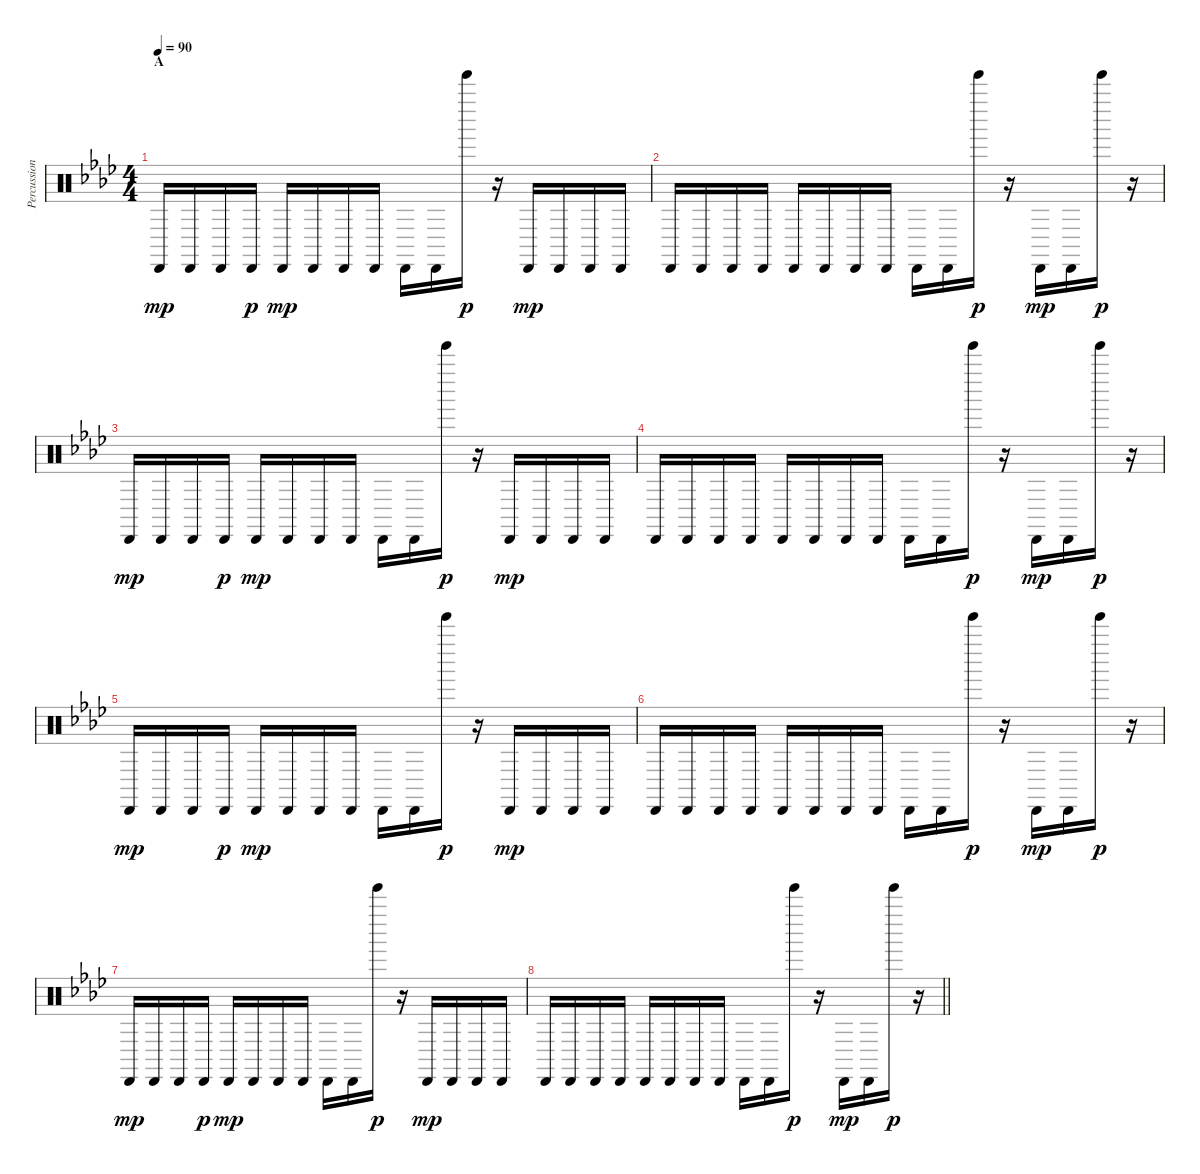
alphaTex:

\track ("Percussion" "Percussion") {instrument percussion}
\staff {score}
\articulation defaults
\ts (4 4)
\section ("" "A")
\tempo 90
\clef neutral
\ks ab "Cabasa (hit)".16{dy mp} "Cabasa (hit)".16 "Cabasa (hit)".16 "Cabasa (hit)".16{dy p} "Cabasa (hit)".16{dy mp} "Cabasa (hit)".16 "Cabasa (hit)".16 "Cabasa (hit)".16 "Cabasa (hit)".16 "Cabasa (hit)".16 "Tinkle Bell (hit)".16{dy p}
r.16 "Cabasa (hit)".16{dy mp} "Cabasa (hit)".16 "Cabasa (hit)".16 "Cabasa (hit)".16 |
"Cabasa (hit)".16 "Cabasa (hit)".16 "Cabasa (hit)".16 "Cabasa (hit)".16 "Cabasa (hit)".16 "Cabasa (hit)".16 "Cabasa (hit)".16 "Cabasa (hit)".16 "Cabasa (hit)".16 "Cabasa (hit)".16 "Tinkle Bell (hit)".16{dy p} r.16 "Cabasa (hit)".16{dy mp} "Cabasa (hit)".16 "Tinkle Bell (hit)".16{dy p} r.16 |
"Cabasa (hit)".16{dy mp} "Cabasa (hit)".16 "Cabasa (hit)".16 "Cabasa (hit)".16{dy p} "Cabasa (hit)".16{dy mp} "Cabasa (hit)".16 "Cabasa (hit)".16 "Cabasa (hit)".16 "Cabasa (hit)".16 "Cabasa (hit)".16 "Tinkle Bell (hit)".16{dy p} r.16 "Cabasa (hit)".16{dy mp} "Cabasa (hit)".16 "Cabasa (hit)".16 "Cabasa (hit)".16 |
"Cabasa (hit)".16 "Cabasa (hit)".16 "Cabasa (hit)".16 "Cabasa (hit)".16 "Cabasa (hit)".16 "Cabasa (hit)".16 "Cabasa (hit)".16 "Cabasa (hit)".16 "Cabasa (hit)".16 "Cabasa (hit)".16 "Tinkle Bell (hit)".16{dy p} r.16 "Cabasa (hit)".16{dy mp} "Cabasa (hit)".16 "Tinkle Bell (hit)".16{dy p} r.16 |
"Cabasa (hit)".16{dy mp} "Cabasa (hit)".16 "Cabasa (hit)".16 "Cabasa (hit)".16{dy p} "Cabasa (hit)".16{dy mp} "Cabasa (hit)".16 "Cabasa (hit)".16 "Cabasa (hit)".16 "Cabasa (hit)".16 "Cabasa (hit)".16 "Tinkle Bell (hit)".16{dy p} r.16 "Cabasa (hit)".16{dy mp} "Cabasa (hit)".16 "Cabasa (hit)".16 "Cabasa (hit)".16 |
"Cabasa (hit)".16 "Cabasa (hit)".16 "Cabasa (hit)".16 "Cabasa (hit)".16 "Cabasa (hit)".16 "Cabasa (hit)".16 "Cabasa (hit)".16 "Cabasa (hit)".16 "Cabasa (hit)".16 "Cabasa (hit)".16 "Tinkle Bell (hit)".16{dy p} r.16 "Cabasa (hit)".16{dy mp} "Cabasa (hit)".16 "Tinkle Bell (hit)".16{dy p} r.16 |
"Cabasa (hit)".16{dy mp} "Cabasa (hit)".16 "Cabasa (hit)".16 "Cabasa (hit)".16{dy p} "Cabasa (hit)".16{dy mp} "Cabasa (hit)".16 "Cabasa (hit)".16 "Cabasa (hit)".16 "Cabasa (hit)".16 "Cabasa (hit)".16 "Tinkle Bell (hit)".16{dy p} r.16 "Cabasa (hit)".16{dy mp} "Cabasa (hit)".16 "Cabasa (hit)".16 "Cabasa (hit)".16 |
\barLineRight lightlight "Cabasa (hit)".16 "Cabasa (hit)".16 "Cabasa (hit)".16 "Cabasa (hit)".16 "Cabasa (hit)".16 "Cabasa (hit)".16 "Cabasa (hit)".16 "Cabasa (hit)".16 "Cabasa (hit)".16 "Cabasa (hit)".16 "Tinkle Bell (hit)".16{dy p}
r.16 "Cabasa (hit)".16{dy mp} "Cabasa (hit)".16 "Tinkle Bell (hit)".16{dy p} r.16
